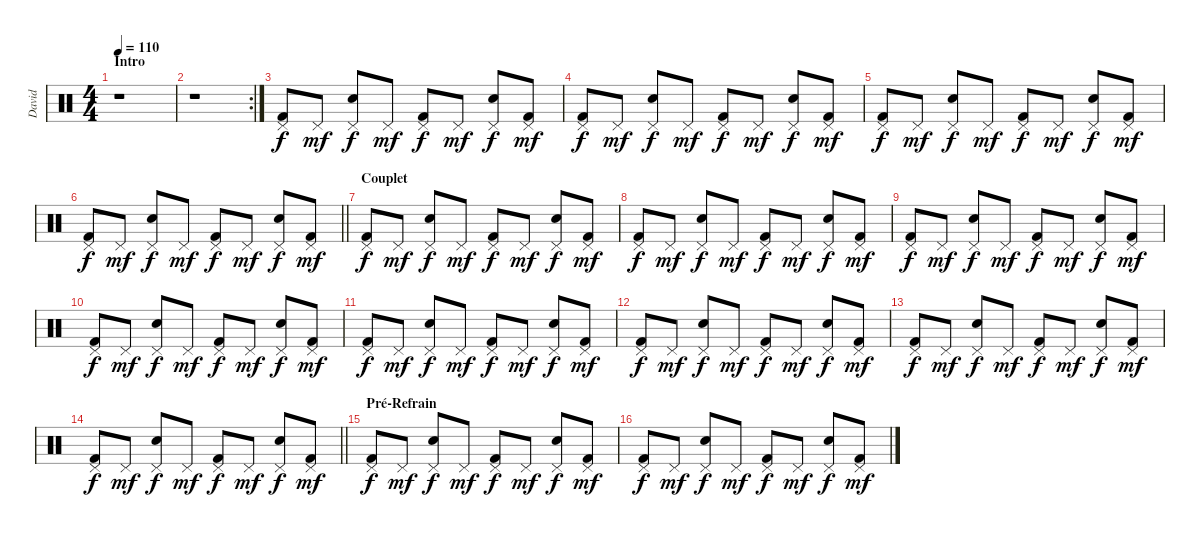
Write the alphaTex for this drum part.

\track ("David" "David") {instrument percussion}
\staff {score}
\articulation defaults
\ts (4 4)
\section ("" "Intro")
\tempo 110
\clef neutral
\ks c
r.1{dy f} |
\rc 2
r.1 |
("Pedal Hi-Hat (hit)" "Kick (hit) 2").8 "Pedal Hi-Hat (hit)".8{dy mf} ("Pedal Hi-Hat (hit)" "Electric Snare (hit)").8{dy f} "Pedal Hi-Hat (hit)".8{dy mf} ("Pedal Hi-Hat (hit)" "Kick (hit) 2").8{dy f} "Pedal Hi-Hat (hit)".8{dy mf} ("Pedal Hi-Hat (hit)" "Electric Snare (hit)").8{dy f} ("Pedal Hi-Hat (hit)" "Kick (hit) 2").8{dy mf} |
("Pedal Hi-Hat (hit)" "Kick (hit) 2").8{dy f} "Pedal Hi-Hat (hit)".8{dy mf} ("Pedal Hi-Hat (hit)" "Electric Snare (hit)").8{dy f} "Pedal Hi-Hat (hit)".8{dy mf} ("Pedal Hi-Hat (hit)" "Kick (hit) 2").8{dy f} "Pedal Hi-Hat (hit)".8{dy mf} ("Pedal Hi-Hat (hit)" "Electric Snare (hit)").8{dy f} ("Pedal Hi-Hat (hit)" "Kick (hit) 2").8{dy mf} |
("Pedal Hi-Hat (hit)" "Kick (hit) 2").8{dy f} "Pedal Hi-Hat (hit)".8{dy mf} ("Pedal Hi-Hat (hit)" "Electric Snare (hit)").8{dy f} "Pedal Hi-Hat (hit)".8{dy mf} ("Pedal Hi-Hat (hit)" "Kick (hit) 2").8{dy f} "Pedal Hi-Hat (hit)".8{dy mf} ("Pedal Hi-Hat (hit)" "Electric Snare (hit)").8{dy f} ("Pedal Hi-Hat (hit)" "Kick (hit) 2").8{dy mf} |
\barLineRight lightlight
("Pedal Hi-Hat (hit)" "Kick (hit) 2").8{dy f} "Pedal Hi-Hat (hit)".8{dy mf} ("Pedal Hi-Hat (hit)" "Electric Snare (hit)").8{dy f} "Pedal Hi-Hat (hit)".8{dy mf} ("Pedal Hi-Hat (hit)" "Kick (hit) 2").8{dy f} "Pedal Hi-Hat (hit)".8{dy mf} ("Pedal Hi-Hat (hit)" "Electric Snare (hit)").8{dy f} ("Pedal Hi-Hat (hit)" "Kick (hit) 2").8{dy mf} |
\section ("" "Couplet")
("Pedal Hi-Hat (hit)" "Kick (hit) 2").8{dy f} "Pedal Hi-Hat (hit)".8{dy mf} ("Pedal Hi-Hat (hit)" "Electric Snare (hit)").8{dy f} "Pedal Hi-Hat (hit)".8{dy mf} ("Pedal Hi-Hat (hit)" "Kick (hit) 2").8{dy f} "Pedal Hi-Hat (hit)".8{dy mf} ("Pedal Hi-Hat (hit)" "Electric Snare (hit)").8{dy f} ("Pedal Hi-Hat (hit)" "Kick (hit) 2").8{dy mf} |
("Pedal Hi-Hat (hit)" "Kick (hit) 2").8{dy f} "Pedal Hi-Hat (hit)".8{dy mf} ("Pedal Hi-Hat (hit)" "Electric Snare (hit)").8{dy f} "Pedal Hi-Hat (hit)".8{dy mf} ("Pedal Hi-Hat (hit)" "Kick (hit) 2").8{dy f} "Pedal Hi-Hat (hit)".8{dy mf} ("Pedal Hi-Hat (hit)" "Electric Snare (hit)").8{dy f} ("Pedal Hi-Hat (hit)" "Kick (hit) 2").8{dy mf} |
("Pedal Hi-Hat (hit)" "Kick (hit) 2").8{dy f} "Pedal Hi-Hat (hit)".8{dy mf} ("Pedal Hi-Hat (hit)" "Electric Snare (hit)").8{dy f} "Pedal Hi-Hat (hit)".8{dy mf} ("Pedal Hi-Hat (hit)" "Kick (hit) 2").8{dy f} "Pedal Hi-Hat (hit)".8{dy mf} ("Pedal Hi-Hat (hit)" "Electric Snare (hit)").8{dy f} ("Pedal Hi-Hat (hit)" "Kick (hit) 2").8{dy mf} |
("Pedal Hi-Hat (hit)" "Kick (hit) 2").8{dy f} "Pedal Hi-Hat (hit)".8{dy mf} ("Pedal Hi-Hat (hit)" "Electric Snare (hit)").8{dy f} "Pedal Hi-Hat (hit)".8{dy mf} ("Pedal Hi-Hat (hit)" "Kick (hit) 2").8{dy f} "Pedal Hi-Hat (hit)".8{dy mf} ("Pedal Hi-Hat (hit)" "Electric Snare (hit)").8{dy f} ("Pedal Hi-Hat (hit)" "Kick (hit) 2").8{dy mf} |
("Pedal Hi-Hat (hit)" "Kick (hit) 2").8{dy f} "Pedal Hi-Hat (hit)".8{dy mf} ("Pedal Hi-Hat (hit)" "Electric Snare (hit)").8{dy f} "Pedal Hi-Hat (hit)".8{dy mf} ("Pedal Hi-Hat (hit)" "Kick (hit) 2").8{dy f} "Pedal Hi-Hat (hit)".8{dy mf} ("Pedal Hi-Hat (hit)" "Electric Snare (hit)").8{dy f} ("Pedal Hi-Hat (hit)" "Kick (hit) 2").8{dy mf} |
("Pedal Hi-Hat (hit)" "Kick (hit) 2").8{dy f} "Pedal Hi-Hat (hit)".8{dy mf} ("Pedal Hi-Hat (hit)" "Electric Snare (hit)").8{dy f} "Pedal Hi-Hat (hit)".8{dy mf} ("Pedal Hi-Hat (hit)" "Kick (hit) 2").8{dy f} "Pedal Hi-Hat (hit)".8{dy mf} ("Pedal Hi-Hat (hit)" "Electric Snare (hit)").8{dy f} ("Pedal Hi-Hat (hit)" "Kick (hit) 2").8{dy mf} |
("Pedal Hi-Hat (hit)" "Kick (hit) 2").8{dy f} "Pedal Hi-Hat (hit)".8{dy mf} ("Pedal Hi-Hat (hit)" "Electric Snare (hit)").8{dy f} "Pedal Hi-Hat (hit)".8{dy mf} ("Pedal Hi-Hat (hit)" "Kick (hit) 2").8{dy f} "Pedal Hi-Hat (hit)".8{dy mf} ("Pedal Hi-Hat (hit)" "Electric Snare (hit)").8{dy f} ("Pedal Hi-Hat (hit)" "Kick (hit) 2").8{dy mf} |
\barLineRight lightlight
("Pedal Hi-Hat (hit)" "Kick (hit) 2").8{dy f} "Pedal Hi-Hat (hit)".8{dy mf} ("Pedal Hi-Hat (hit)" "Electric Snare (hit)").8{dy f} "Pedal Hi-Hat (hit)".8{dy mf} ("Pedal Hi-Hat (hit)" "Kick (hit) 2").8{dy f} "Pedal Hi-Hat (hit)".8{dy mf} ("Pedal Hi-Hat (hit)" "Electric Snare (hit)").8{dy f} ("Pedal Hi-Hat (hit)" "Kick (hit) 2").8{dy mf} |
\section ("" "Pré-Refrain")
("Pedal Hi-Hat (hit)" "Kick (hit) 2").8{dy f} "Pedal Hi-Hat (hit)".8{dy mf} ("Pedal Hi-Hat (hit)" "Electric Snare (hit)").8{dy f} "Pedal Hi-Hat (hit)".8{dy mf} ("Pedal Hi-Hat (hit)" "Kick (hit) 2").8{dy f} "Pedal Hi-Hat (hit)".8{dy mf} ("Pedal Hi-Hat (hit)" "Electric Snare (hit)").8{dy f} ("Pedal Hi-Hat (hit)" "Kick (hit) 2").8{dy mf} |
("Pedal Hi-Hat (hit)" "Kick (hit) 2").8{dy f} "Pedal Hi-Hat (hit)".8{dy mf} ("Pedal Hi-Hat (hit)" "Electric Snare (hit)").8{dy f} "Pedal Hi-Hat (hit)".8{dy mf} ("Pedal Hi-Hat (hit)" "Kick (hit) 2").8{dy f} "Pedal Hi-Hat (hit)".8{dy mf} ("Pedal Hi-Hat (hit)" "Electric Snare (hit)").8{dy f} ("Pedal Hi-Hat (hit)" "Kick (hit) 2").8{dy mf}
